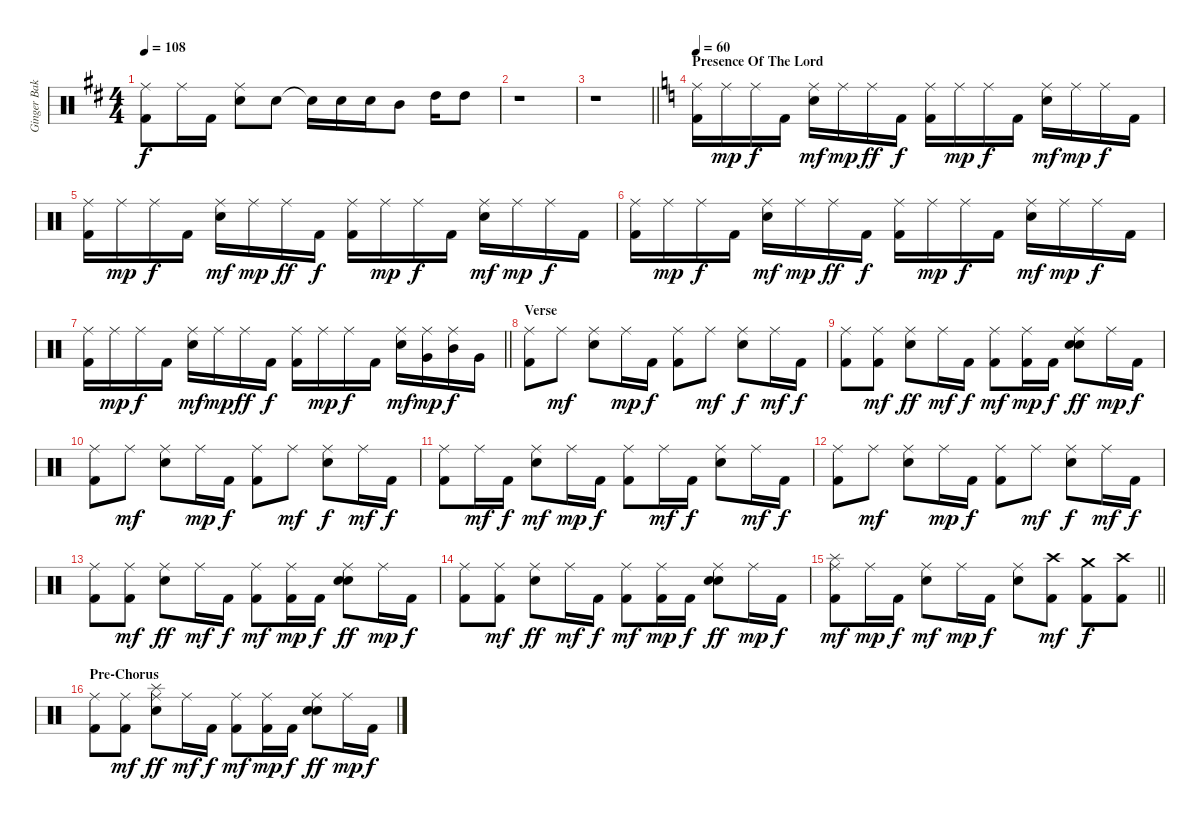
\track ("Ginger Baker (Drums)" "Ginger Bak") {instrument percussion}
\staff {score}
\articulation defaults
\ts (4 4)
\tempo 108
\clef neutral
\ks d
("Ride (middle)" "Kick (hit) 2").8{dy f} "Ride (middle)".16 "Kick (hit) 2".16 ("Ride (middle)" "Snare (hit) 2").8 "Snare (hit) 2".8 "Snare (hit)"{t}.16 "Snare (hit) 2".16 "Snare (hit) 2".16 "Mid Tom (hit)".8 "High Tom (hit)".16 "High Tom (hit)".8 |
r.1 |
\barLineRight lightlight
r.1 |
\section ("" "Presence Of The Lord")
\tempo 60
\ks c
("Ride (middle)" "Kick (hit) 2").16 "Ride (middle)".16{dy mp} "Ride (middle)".16{dy f} "Kick (hit) 2".16 ("Ride (middle)" "Snare (hit) 2").16{dy mf} "Ride (middle)".16{dy mp} "Ride (middle)".16{dy ff} "Kick (hit) 2".16{dy f} ("Ride (middle)" "Kick (hit) 2").16 "Ride (middle)".16{dy mp} "Ride (middle)".16{dy f} "Kick (hit) 2".16 ("Ride (middle)" "Snare (hit) 2").16{dy mf} "Ride (middle)".16{dy mp} "Ride (middle)".16{dy f} "Kick (hit) 2".16 |
("Ride (middle)" "Kick (hit) 2").16 "Ride (middle)".16{dy mp} "Ride (middle)".16{dy f} "Kick (hit) 2".16 ("Ride (middle)" "Snare (hit) 2").16{dy mf} "Ride (middle)".16{dy mp} "Ride (middle)".16{dy ff} "Kick (hit) 2".16{dy f} ("Ride (middle)" "Kick (hit) 2").16 "Ride (middle)".16{dy mp} "Ride (middle)".16{dy f} "Kick (hit) 2".16 ("Ride (middle)" "Snare (hit) 2").16{dy mf} "Ride (middle)".16{dy mp} "Ride (middle)".16{dy f} "Kick (hit) 2".16 |
("Ride (middle)" "Kick (hit) 2").16 "Ride (middle)".16{dy mp} "Ride (middle)".16{dy f} "Kick (hit) 2".16 ("Ride (middle)" "Snare (hit) 2").16{dy mf} "Ride (middle)".16{dy mp} "Ride (middle)".16{dy ff} "Kick (hit) 2".16{dy f} ("Ride (middle)" "Kick (hit) 2").16 "Ride (middle)".16{dy mp} "Ride (middle)".16{dy f} "Kick (hit) 2".16 ("Ride (middle)" "Snare (hit) 2").16{dy mf} "Ride (middle)".16{dy mp} "Ride (middle)".16{dy f} "Kick (hit) 2".16 |
\barLineRight lightlight
("Ride (middle)" "Kick (hit) 2").16 "Ride (middle)".16{dy mp} "Ride (middle)".16{dy f} "Kick (hit) 2".16 ("Ride (middle)" "Snare (hit) 2").16{dy mf} "Ride (middle)".16{dy mp} "Ride (middle)".16{dy ff} "Kick (hit) 2".16{dy f} ("Ride (middle)" "Kick (hit) 2").16 "Ride (middle)".16{dy mp} "Ride (middle)".16{dy f} "Kick (hit) 2".16 ("Ride (middle)" "Snare (hit) 2").16{dy mf} ("Ride (middle)" "Very Low Tom (hit)").16{dy mp} ("Ride (middle)" "Mid Tom (hit)").16{dy f} "Very Low Tom (hit)".16 |
\section ("" "Verse")
("Ride (middle)" "Kick (hit) 2").8 "Ride (middle)".8{dy mf} ("Ride (middle)" "Snare (hit) 2").8 "Ride (middle)".16{dy mp} "Kick (hit) 2".16{dy f} ("Ride (middle)" "Kick (hit) 2").8 "Ride (middle)".8{dy mf} ("Ride (middle)" "Snare (hit) 2").8{dy f} "Ride (middle)".16{dy mf} "Kick (hit) 2".16{dy f} |
("Ride (middle)" "Kick (hit) 2").8 ("Ride (middle)" "Kick (hit) 2").8{dy mf} ("Ride (middle)" "Snare (hit) 2").8{dy ff} "Ride (middle)".16{dy mf} "Kick (hit) 2".16{dy f} ("Ride (middle)" "Kick (hit) 2").8{dy mf} ("Ride (middle)" "Kick (hit) 2").16{dy mp} "Kick (hit) 2".16{dy f} ("Ride (middle)" "Snare (hit) 2" "Electric Snare (hit)").8{dy ff} "Ride (middle)".16{dy mp} "Kick (hit) 2".16{dy f} |
("Ride (middle)" "Kick (hit) 2").8 "Ride (middle)".8{dy mf} ("Ride (middle)" "Snare (hit) 2").8 "Ride (middle)".16{dy mp} "Kick (hit) 2".16{dy f} ("Ride (middle)" "Kick (hit) 2").8 "Ride (middle)".8{dy mf} ("Ride (middle)" "Snare (hit) 2").8{dy f} "Ride (middle)".16{dy mf} "Kick (hit) 2".16{dy f} |
("Ride (middle)" "Kick (hit) 2").8 "Ride (middle)".16{dy mf} "Kick (hit) 2".16{dy f} ("Ride (middle)" "Snare (hit) 2").8{dy mf} "Ride (middle)".16{dy mp} "Kick (hit) 2".16{dy f} ("Ride (middle)" "Kick (hit) 2").8 "Ride (middle)".16{dy mf} "Kick (hit) 2".16{dy f} ("Ride (middle)" "Snare (hit) 2").8 "Ride (middle)".16{dy mf} "Kick (hit) 2".16{dy f} |
("Ride (middle)" "Kick (hit) 2").8 "Ride (middle)".8{dy mf} ("Ride (middle)" "Snare (hit) 2").8 "Ride (middle)".16{dy mp} "Kick (hit) 2".16{dy f} ("Ride (middle)" "Kick (hit) 2").8 "Ride (middle)".8{dy mf} ("Ride (middle)" "Snare (hit) 2").8{dy f} "Ride (middle)".16{dy mf} "Kick (hit) 2".16{dy f} |
("Ride (middle)" "Kick (hit) 2").8 ("Ride (middle)" "Kick (hit) 2").8{dy mf} ("Ride (middle)" "Snare (hit) 2").8{dy ff} "Ride (middle)".16{dy mf} "Kick (hit) 2".16{dy f} ("Ride (middle)" "Kick (hit) 2").8{dy mf} ("Ride (middle)" "Kick (hit) 2").16{dy mp} "Kick (hit) 2".16{dy f} ("Ride (middle)" "Snare (hit) 2" "Electric Snare (hit)").8{dy ff} "Ride (middle)".16{dy mp} "Kick (hit) 2".16{dy f} |
("Ride (middle)" "Kick (hit) 2").8 ("Ride (middle)" "Kick (hit) 2").8{dy mf} ("Ride (middle)" "Snare (hit) 2").8{dy ff} "Ride (middle)".16{dy mf} "Kick (hit) 2".16{dy f} ("Ride (middle)" "Kick (hit) 2").8{dy mf} ("Ride (middle)" "Kick (hit) 2").16{dy mp} "Kick (hit) 2".16{dy f} ("Ride (middle)" "Snare (hit) 2" "Electric Snare (hit)").8{dy ff} "Ride (middle)".16{dy mp} "Kick (hit) 2".16{dy f} |
\barLineRight lightlight
("Splash (hit)" "Ride (middle)" "Kick (hit) 2").8{dy mf} "Ride (middle)".16{dy mp} "Kick (hit) 2".16{dy f} ("Ride (middle)" "Snare (hit) 2").8{dy mf} "Ride (middle)".16{dy mp} "Kick (hit) 2".16{dy f} ("Ride (middle)" "Snare (hit) 2").8 ("Crash high (hit)" "Kick (hit) 2").8{dy mf} ("Crash medium (hit)" "Kick (hit) 2").8{dy f} ("Crash high (hit)" "Kick (hit) 2").8 |
\section ("" "Pre-Chorus")
("Ride (middle)" "Kick (hit) 2").8 ("Ride (middle)" "Kick (hit) 2").8{dy mf} ("Ride (middle)" "Splash (hit)" "Snare (hit) 2").8{dy ff} "Ride (middle)".16{dy mf} "Kick (hit) 2".16{dy f} ("Ride (middle)" "Kick (hit) 2").8{dy mf} ("Ride (middle)" "Kick (hit) 2").16{dy mp} "Kick (hit) 2".16{dy f} ("Ride (middle)" "Snare (hit) 2" "Electric Snare (hit)").8{dy ff} "Ride (middle)".16{dy mp} "Kick (hit) 2".16{dy f}
